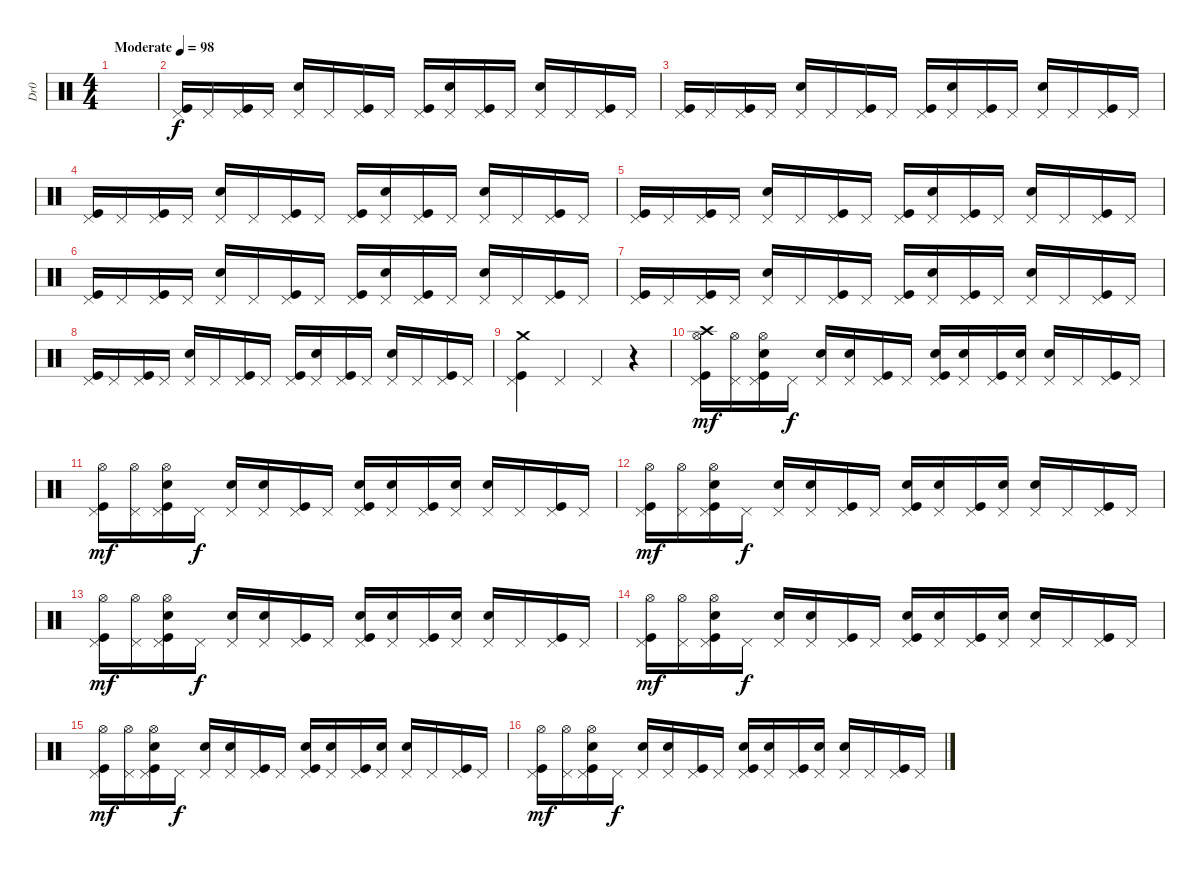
\track ("Dr0" "Dr0") {instrument percussion}
\staff {score}
\articulation defaults
\ts (4 4)
\tempo (98 "Moderate")
\clef neutral
\ks c
|
("Kick (hit)" "Pedal Hi-Hat (hit)").16 "Pedal Hi-Hat (hit)".16 ("Kick (hit)" "Pedal Hi-Hat (hit)").16 "Pedal Hi-Hat (hit)".16 ("Pedal Hi-Hat (hit)" "Snare (hit) 2").16 "Pedal Hi-Hat (hit)".16 ("Kick (hit)" "Pedal Hi-Hat (hit)").16 "Pedal Hi-Hat (hit)".16 ("Kick (hit)" "Pedal Hi-Hat (hit)").16 ("Pedal Hi-Hat (hit)" "Snare (hit) 2").16 ("Kick (hit)" "Pedal Hi-Hat (hit)").16 "Pedal Hi-Hat (hit)".16 ("Pedal Hi-Hat (hit)" "Snare (hit) 2").16 "Pedal Hi-Hat (hit)".16 ("Kick (hit)" "Pedal Hi-Hat (hit)").16 "Pedal Hi-Hat (hit)".16 |
("Kick (hit)" "Pedal Hi-Hat (hit)").16 "Pedal Hi-Hat (hit)".16 ("Kick (hit)" "Pedal Hi-Hat (hit)").16 "Pedal Hi-Hat (hit)".16 ("Pedal Hi-Hat (hit)" "Snare (hit) 2").16 "Pedal Hi-Hat (hit)".16 ("Kick (hit)" "Pedal Hi-Hat (hit)").16 "Pedal Hi-Hat (hit)".16 ("Kick (hit)" "Pedal Hi-Hat (hit)").16 ("Pedal Hi-Hat (hit)" "Snare (hit) 2").16 ("Kick (hit)" "Pedal Hi-Hat (hit)").16 "Pedal Hi-Hat (hit)".16 ("Pedal Hi-Hat (hit)" "Snare (hit) 2").16 "Pedal Hi-Hat (hit)".16 ("Kick (hit)" "Pedal Hi-Hat (hit)").16 "Pedal Hi-Hat (hit)".16 |
("Kick (hit)" "Pedal Hi-Hat (hit)").16 "Pedal Hi-Hat (hit)".16 ("Kick (hit)" "Pedal Hi-Hat (hit)").16 "Pedal Hi-Hat (hit)".16 ("Pedal Hi-Hat (hit)" "Snare (hit) 2").16 "Pedal Hi-Hat (hit)".16 ("Kick (hit)" "Pedal Hi-Hat (hit)").16 "Pedal Hi-Hat (hit)".16 ("Kick (hit)" "Pedal Hi-Hat (hit)").16 ("Pedal Hi-Hat (hit)" "Snare (hit) 2").16 ("Kick (hit)" "Pedal Hi-Hat (hit)").16 "Pedal Hi-Hat (hit)".16 ("Pedal Hi-Hat (hit)" "Snare (hit) 2").16 "Pedal Hi-Hat (hit)".16 ("Kick (hit)" "Pedal Hi-Hat (hit)").16 "Pedal Hi-Hat (hit)".16 |
("Kick (hit)" "Pedal Hi-Hat (hit)").16 "Pedal Hi-Hat (hit)".16 ("Kick (hit)" "Pedal Hi-Hat (hit)").16 "Pedal Hi-Hat (hit)".16 ("Pedal Hi-Hat (hit)" "Snare (hit) 2").16 "Pedal Hi-Hat (hit)".16 ("Kick (hit)" "Pedal Hi-Hat (hit)").16 "Pedal Hi-Hat (hit)".16 ("Kick (hit)" "Pedal Hi-Hat (hit)").16 ("Pedal Hi-Hat (hit)" "Snare (hit) 2").16 ("Kick (hit)" "Pedal Hi-Hat (hit)").16 "Pedal Hi-Hat (hit)".16 ("Pedal Hi-Hat (hit)" "Snare (hit) 2").16 "Pedal Hi-Hat (hit)".16 ("Kick (hit)" "Pedal Hi-Hat (hit)").16 "Pedal Hi-Hat (hit)".16 |
("Kick (hit)" "Pedal Hi-Hat (hit)").16 "Pedal Hi-Hat (hit)".16 ("Kick (hit)" "Pedal Hi-Hat (hit)").16 "Pedal Hi-Hat (hit)".16 ("Pedal Hi-Hat (hit)" "Snare (hit) 2").16 "Pedal Hi-Hat (hit)".16 ("Kick (hit)" "Pedal Hi-Hat (hit)").16 "Pedal Hi-Hat (hit)".16 ("Kick (hit)" "Pedal Hi-Hat (hit)").16 ("Pedal Hi-Hat (hit)" "Snare (hit) 2").16 ("Kick (hit)" "Pedal Hi-Hat (hit)").16 "Pedal Hi-Hat (hit)".16 ("Pedal Hi-Hat (hit)" "Snare (hit) 2").16 "Pedal Hi-Hat (hit)".16 ("Kick (hit)" "Pedal Hi-Hat (hit)").16 "Pedal Hi-Hat (hit)".16 |
("Kick (hit)" "Pedal Hi-Hat (hit)").16 "Pedal Hi-Hat (hit)".16 ("Kick (hit)" "Pedal Hi-Hat (hit)").16 "Pedal Hi-Hat (hit)".16 ("Pedal Hi-Hat (hit)" "Snare (hit) 2").16 "Pedal Hi-Hat (hit)".16 ("Kick (hit)" "Pedal Hi-Hat (hit)").16 "Pedal Hi-Hat (hit)".16 ("Kick (hit)" "Pedal Hi-Hat (hit)").16 ("Pedal Hi-Hat (hit)" "Snare (hit) 2").16 ("Kick (hit)" "Pedal Hi-Hat (hit)").16 "Pedal Hi-Hat (hit)".16 ("Pedal Hi-Hat (hit)" "Snare (hit) 2").16 "Pedal Hi-Hat (hit)".16 ("Kick (hit)" "Pedal Hi-Hat (hit)").16 "Pedal Hi-Hat (hit)".16 |
("Kick (hit)" "Pedal Hi-Hat (hit)").16 "Pedal Hi-Hat (hit)".16 ("Kick (hit)" "Pedal Hi-Hat (hit)").16 "Pedal Hi-Hat (hit)".16 ("Pedal Hi-Hat (hit)" "Snare (hit) 2").16 "Pedal Hi-Hat (hit)".16 ("Kick (hit)" "Pedal Hi-Hat (hit)").16 "Pedal Hi-Hat (hit)".16 ("Kick (hit)" "Pedal Hi-Hat (hit)").16 ("Pedal Hi-Hat (hit)" "Snare (hit) 2").16 ("Kick (hit)" "Pedal Hi-Hat (hit)").16 "Pedal Hi-Hat (hit)".16 ("Pedal Hi-Hat (hit)" "Snare (hit) 2").16 "Pedal Hi-Hat (hit)".16 ("Kick (hit)" "Pedal Hi-Hat (hit)").16 "Pedal Hi-Hat (hit)".16 |
("Kick (hit)" "Pedal Hi-Hat (hit)" "Crash medium (hit)").4 "Pedal Hi-Hat (hit)".4 "Pedal Hi-Hat (hit)".4 r.4 |
("Kick (hit)" "Pedal Hi-Hat (hit)" "Crash high (hit)" "Hi-Hat (open)").16{dy mf} ("Pedal Hi-Hat (hit)" "Hi-Hat (open)").16 ("Kick (hit)" "Pedal Hi-Hat (hit)" "Hand Clap (hit)" "Hi-Hat (open)").16 "Pedal Hi-Hat (hit)".16{dy f} ("Pedal Hi-Hat (hit)" "Snare (hit) 2").16 ("Pedal Hi-Hat (hit)" "Hand Clap (hit)").16 ("Kick (hit)" "Pedal Hi-Hat (hit)").16 "Pedal Hi-Hat (hit)".16 ("Kick (hit)" "Pedal Hi-Hat (hit)" "Hand Clap (hit)").16 ("Pedal Hi-Hat (hit)" "Snare (hit) 2").16 ("Kick (hit)" "Pedal Hi-Hat (hit)").16 ("Pedal Hi-Hat (hit)" "Hand Clap (hit)").16 ("Pedal Hi-Hat (hit)" "Snare (hit) 2").16 "Pedal Hi-Hat (hit)".16 ("Kick (hit)" "Pedal Hi-Hat (hit)").16 "Pedal Hi-Hat (hit)".16 |
("Kick (hit)" "Pedal Hi-Hat (hit)" "Hi-Hat (open)").16{dy mf} ("Pedal Hi-Hat (hit)" "Hi-Hat (open)").16 ("Kick (hit)" "Pedal Hi-Hat (hit)" "Hand Clap (hit)" "Hi-Hat (open)").16 "Pedal Hi-Hat (hit)".16{dy f} ("Pedal Hi-Hat (hit)" "Snare (hit) 2").16 ("Pedal Hi-Hat (hit)" "Hand Clap (hit)").16 ("Kick (hit)" "Pedal Hi-Hat (hit)").16 "Pedal Hi-Hat (hit)".16 ("Kick (hit)" "Pedal Hi-Hat (hit)" "Hand Clap (hit)").16 ("Pedal Hi-Hat (hit)" "Snare (hit) 2").16 ("Kick (hit)" "Pedal Hi-Hat (hit)").16 ("Pedal Hi-Hat (hit)" "Hand Clap (hit)").16 ("Pedal Hi-Hat (hit)" "Snare (hit) 2").16 "Pedal Hi-Hat (hit)".16 ("Kick (hit)" "Pedal Hi-Hat (hit)").16 "Pedal Hi-Hat (hit)".16 |
("Kick (hit)" "Pedal Hi-Hat (hit)" "Hi-Hat (open)").16{dy mf} ("Pedal Hi-Hat (hit)" "Hi-Hat (open)").16 ("Kick (hit)" "Pedal Hi-Hat (hit)" "Hand Clap (hit)" "Hi-Hat (open)").16 "Pedal Hi-Hat (hit)".16{dy f} ("Pedal Hi-Hat (hit)" "Snare (hit) 2").16 ("Pedal Hi-Hat (hit)" "Hand Clap (hit)").16 ("Kick (hit)" "Pedal Hi-Hat (hit)").16 "Pedal Hi-Hat (hit)".16 ("Kick (hit)" "Pedal Hi-Hat (hit)" "Hand Clap (hit)").16 ("Pedal Hi-Hat (hit)" "Snare (hit) 2").16 ("Kick (hit)" "Pedal Hi-Hat (hit)").16 ("Pedal Hi-Hat (hit)" "Hand Clap (hit)").16 ("Pedal Hi-Hat (hit)" "Snare (hit) 2").16 "Pedal Hi-Hat (hit)".16 ("Kick (hit)" "Pedal Hi-Hat (hit)").16 "Pedal Hi-Hat (hit)".16 |
("Kick (hit)" "Pedal Hi-Hat (hit)" "Hi-Hat (open)").16{dy mf} ("Pedal Hi-Hat (hit)" "Hi-Hat (open)").16 ("Kick (hit)" "Pedal Hi-Hat (hit)" "Hand Clap (hit)" "Hi-Hat (open)").16 "Pedal Hi-Hat (hit)".16{dy f} ("Pedal Hi-Hat (hit)" "Snare (hit) 2").16 ("Pedal Hi-Hat (hit)" "Hand Clap (hit)").16 ("Kick (hit)" "Pedal Hi-Hat (hit)").16 "Pedal Hi-Hat (hit)".16 ("Kick (hit)" "Pedal Hi-Hat (hit)" "Hand Clap (hit)").16 ("Pedal Hi-Hat (hit)" "Snare (hit) 2").16 ("Kick (hit)" "Pedal Hi-Hat (hit)").16 ("Pedal Hi-Hat (hit)" "Hand Clap (hit)").16 ("Pedal Hi-Hat (hit)" "Snare (hit) 2").16 "Pedal Hi-Hat (hit)".16 ("Kick (hit)" "Pedal Hi-Hat (hit)").16 "Pedal Hi-Hat (hit)".16 |
("Kick (hit)" "Pedal Hi-Hat (hit)" "Hi-Hat (open)").16{dy mf} ("Pedal Hi-Hat (hit)" "Hi-Hat (open)").16 ("Kick (hit)" "Pedal Hi-Hat (hit)" "Hand Clap (hit)" "Hi-Hat (open)").16 "Pedal Hi-Hat (hit)".16{dy f} ("Pedal Hi-Hat (hit)" "Snare (hit) 2").16 ("Pedal Hi-Hat (hit)" "Hand Clap (hit)").16 ("Kick (hit)" "Pedal Hi-Hat (hit)").16 "Pedal Hi-Hat (hit)".16 ("Kick (hit)" "Pedal Hi-Hat (hit)" "Hand Clap (hit)").16 ("Pedal Hi-Hat (hit)" "Snare (hit) 2").16 ("Kick (hit)" "Pedal Hi-Hat (hit)").16 ("Pedal Hi-Hat (hit)" "Hand Clap (hit)").16 ("Pedal Hi-Hat (hit)" "Snare (hit) 2").16 "Pedal Hi-Hat (hit)".16 ("Kick (hit)" "Pedal Hi-Hat (hit)").16 "Pedal Hi-Hat (hit)".16 |
("Kick (hit)" "Pedal Hi-Hat (hit)" "Hi-Hat (open)").16{dy mf} ("Pedal Hi-Hat (hit)" "Hi-Hat (open)").16 ("Kick (hit)" "Pedal Hi-Hat (hit)" "Hand Clap (hit)" "Hi-Hat (open)").16 "Pedal Hi-Hat (hit)".16{dy f} ("Pedal Hi-Hat (hit)" "Snare (hit) 2").16 ("Pedal Hi-Hat (hit)" "Hand Clap (hit)").16 ("Kick (hit)" "Pedal Hi-Hat (hit)").16 "Pedal Hi-Hat (hit)".16 ("Kick (hit)" "Pedal Hi-Hat (hit)" "Hand Clap (hit)").16 ("Pedal Hi-Hat (hit)" "Snare (hit) 2").16 ("Kick (hit)" "Pedal Hi-Hat (hit)").16 ("Pedal Hi-Hat (hit)" "Hand Clap (hit)").16 ("Pedal Hi-Hat (hit)" "Snare (hit) 2").16 "Pedal Hi-Hat (hit)".16 ("Kick (hit)" "Pedal Hi-Hat (hit)").16 "Pedal Hi-Hat (hit)".16 |
("Kick (hit)" "Pedal Hi-Hat (hit)" "Hi-Hat (open)").16{dy mf} ("Pedal Hi-Hat (hit)" "Hi-Hat (open)").16 ("Kick (hit)" "Pedal Hi-Hat (hit)" "Hand Clap (hit)" "Hi-Hat (open)").16 "Pedal Hi-Hat (hit)".16{dy f} ("Pedal Hi-Hat (hit)" "Snare (hit) 2").16 ("Pedal Hi-Hat (hit)" "Hand Clap (hit)").16 ("Kick (hit)" "Pedal Hi-Hat (hit)").16 "Pedal Hi-Hat (hit)".16 ("Kick (hit)" "Pedal Hi-Hat (hit)" "Hand Clap (hit)").16 ("Pedal Hi-Hat (hit)" "Snare (hit) 2").16 ("Kick (hit)" "Pedal Hi-Hat (hit)").16 ("Pedal Hi-Hat (hit)" "Hand Clap (hit)").16 ("Pedal Hi-Hat (hit)" "Snare (hit) 2").16 "Pedal Hi-Hat (hit)".16 ("Kick (hit)" "Pedal Hi-Hat (hit)").16 "Pedal Hi-Hat (hit)".16
